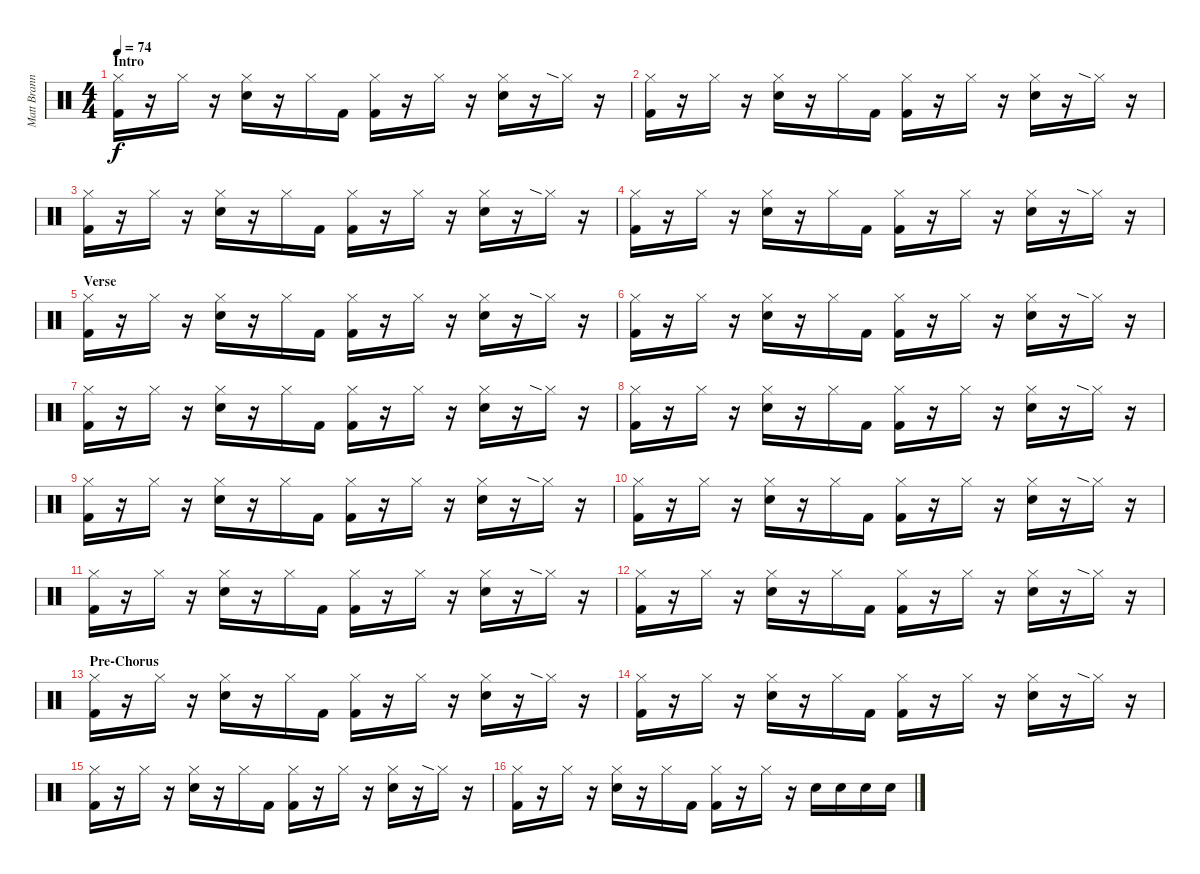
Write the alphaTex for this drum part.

\track ("Matt Brann" "Matt Brann") {instrument percussion}
\staff {score}
\articulation defaults
\ts (4 4)
\section ("" "Intro")
\tempo 74
\clef neutral
\ks c
("Hi-Hat (closed)" "Kick (hit) 2").16{dy f} r.16 "Hi-Hat (closed)".16 r.16 ("Hi-Hat (closed)" "Snare (hit) 2").16 r.16 "Hi-Hat (closed)".16 "Kick (hit) 2".16 ("Hi-Hat (closed)" "Kick (hit) 2").16 r.16 "Hi-Hat (closed)".16 r.16 ("Hi-Hat (closed)" "Snare (hit) 2").16 r.16 "Hi-Hat (closed)"{sia}.16 r.16 |
("Hi-Hat (closed)" "Kick (hit) 2").16 r.16 "Hi-Hat (closed)".16 r.16 ("Hi-Hat (closed)" "Snare (hit) 2").16 r.16 "Hi-Hat (closed)".16 "Kick (hit) 2".16 ("Hi-Hat (closed)" "Kick (hit) 2").16 r.16 "Hi-Hat (closed)".16 r.16 ("Hi-Hat (closed)" "Snare (hit) 2").16 r.16 "Hi-Hat (closed)"{sia}.16 r.16 |
("Hi-Hat (closed)" "Kick (hit) 2").16 r.16 "Hi-Hat (closed)".16 r.16 ("Hi-Hat (closed)" "Snare (hit) 2").16 r.16 "Hi-Hat (closed)".16 "Kick (hit) 2".16 ("Hi-Hat (closed)" "Kick (hit) 2").16 r.16 "Hi-Hat (closed)".16 r.16 ("Hi-Hat (closed)" "Snare (hit) 2").16 r.16 "Hi-Hat (closed)"{sia}.16 r.16 |
("Hi-Hat (closed)" "Kick (hit) 2").16 r.16 "Hi-Hat (closed)".16 r.16 ("Hi-Hat (closed)" "Snare (hit) 2").16 r.16 "Hi-Hat (closed)".16 "Kick (hit) 2".16 ("Hi-Hat (closed)" "Kick (hit) 2").16 r.16 "Hi-Hat (closed)".16 r.16 ("Hi-Hat (closed)" "Snare (hit) 2").16 r.16 "Hi-Hat (closed)"{sia}.16 r.16 |
\section ("" "Verse")
("Hi-Hat (closed)" "Kick (hit) 2").16 r.16 "Hi-Hat (closed)".16 r.16 ("Hi-Hat (closed)" "Snare (hit) 2").16 r.16 "Hi-Hat (closed)".16 "Kick (hit) 2".16 ("Hi-Hat (closed)" "Kick (hit) 2").16 r.16 "Hi-Hat (closed)".16 r.16 ("Hi-Hat (closed)" "Snare (hit) 2").16 r.16 "Hi-Hat (closed)"{sia}.16 r.16 |
("Hi-Hat (closed)" "Kick (hit) 2").16 r.16 "Hi-Hat (closed)".16 r.16 ("Hi-Hat (closed)" "Snare (hit) 2").16 r.16 "Hi-Hat (closed)".16 "Kick (hit) 2".16 ("Hi-Hat (closed)" "Kick (hit) 2").16 r.16 "Hi-Hat (closed)".16 r.16 ("Hi-Hat (closed)" "Snare (hit) 2").16 r.16 "Hi-Hat (closed)"{sia}.16 r.16 |
("Hi-Hat (closed)" "Kick (hit) 2").16 r.16 "Hi-Hat (closed)".16 r.16 ("Hi-Hat (closed)" "Snare (hit) 2").16 r.16 "Hi-Hat (closed)".16 "Kick (hit) 2".16 ("Hi-Hat (closed)" "Kick (hit) 2").16 r.16 "Hi-Hat (closed)".16 r.16 ("Hi-Hat (closed)" "Snare (hit) 2").16 r.16 "Hi-Hat (closed)"{sia}.16 r.16 |
("Hi-Hat (closed)" "Kick (hit) 2").16 r.16 "Hi-Hat (closed)".16 r.16 ("Hi-Hat (closed)" "Snare (hit) 2").16 r.16 "Hi-Hat (closed)".16 "Kick (hit) 2".16 ("Hi-Hat (closed)" "Kick (hit) 2").16 r.16 "Hi-Hat (closed)".16 r.16 ("Hi-Hat (closed)" "Snare (hit) 2").16 r.16 "Hi-Hat (closed)"{sia}.16 r.16 |
("Hi-Hat (closed)" "Kick (hit) 2").16 r.16 "Hi-Hat (closed)".16 r.16 ("Hi-Hat (closed)" "Snare (hit) 2").16 r.16 "Hi-Hat (closed)".16 "Kick (hit) 2".16 ("Hi-Hat (closed)" "Kick (hit) 2").16 r.16 "Hi-Hat (closed)".16 r.16 ("Hi-Hat (closed)" "Snare (hit) 2").16 r.16 "Hi-Hat (closed)"{sia}.16 r.16 |
("Hi-Hat (closed)" "Kick (hit) 2").16 r.16 "Hi-Hat (closed)".16 r.16 ("Hi-Hat (closed)" "Snare (hit) 2").16 r.16 "Hi-Hat (closed)".16 "Kick (hit) 2".16 ("Hi-Hat (closed)" "Kick (hit) 2").16 r.16 "Hi-Hat (closed)".16 r.16 ("Hi-Hat (closed)" "Snare (hit) 2").16 r.16 "Hi-Hat (closed)"{sia}.16 r.16 |
("Hi-Hat (closed)" "Kick (hit) 2").16 r.16 "Hi-Hat (closed)".16 r.16 ("Hi-Hat (closed)" "Snare (hit) 2").16 r.16 "Hi-Hat (closed)".16 "Kick (hit) 2".16 ("Hi-Hat (closed)" "Kick (hit) 2").16 r.16 "Hi-Hat (closed)".16 r.16 ("Hi-Hat (closed)" "Snare (hit) 2").16 r.16 "Hi-Hat (closed)"{sia}.16 r.16 |
("Hi-Hat (closed)" "Kick (hit) 2").16 r.16 "Hi-Hat (closed)".16 r.16 ("Hi-Hat (closed)" "Snare (hit) 2").16 r.16 "Hi-Hat (closed)".16 "Kick (hit) 2".16 ("Hi-Hat (closed)" "Kick (hit) 2").16 r.16 "Hi-Hat (closed)".16 r.16 ("Hi-Hat (closed)" "Snare (hit) 2").16 r.16 "Hi-Hat (closed)"{sia}.16 r.16 |
\section ("" "Pre-Chorus")
("Hi-Hat (closed)" "Kick (hit) 2").16 r.16 "Hi-Hat (closed)".16 r.16 ("Hi-Hat (closed)" "Snare (hit) 2").16 r.16 "Hi-Hat (closed)".16 "Kick (hit) 2".16 ("Hi-Hat (closed)" "Kick (hit) 2").16 r.16 "Hi-Hat (closed)".16 r.16 ("Hi-Hat (closed)" "Snare (hit) 2").16 r.16 "Hi-Hat (closed)"{sia}.16 r.16 |
("Hi-Hat (closed)" "Kick (hit) 2").16 r.16 "Hi-Hat (closed)".16 r.16 ("Hi-Hat (closed)" "Snare (hit) 2").16 r.16 "Hi-Hat (closed)".16 "Kick (hit) 2".16 ("Hi-Hat (closed)" "Kick (hit) 2").16 r.16 "Hi-Hat (closed)".16 r.16 ("Hi-Hat (closed)" "Snare (hit) 2").16 r.16 "Hi-Hat (closed)"{sia}.16 r.16 |
("Hi-Hat (closed)" "Kick (hit) 2").16 r.16 "Hi-Hat (closed)".16 r.16 ("Hi-Hat (closed)" "Snare (hit) 2").16 r.16 "Hi-Hat (closed)".16 "Kick (hit) 2".16 ("Hi-Hat (closed)" "Kick (hit) 2").16 r.16 "Hi-Hat (closed)".16 r.16 ("Hi-Hat (closed)" "Snare (hit) 2").16 r.16 "Hi-Hat (closed)"{sia}.16 r.16 |
("Hi-Hat (closed)" "Kick (hit) 2").16 r.16 "Hi-Hat (closed)".16 r.16 ("Hi-Hat (closed)" "Snare (hit) 2").16 r.16 "Hi-Hat (closed)".16 "Kick (hit) 2".16 ("Hi-Hat (closed)" "Kick (hit) 2").16 r.16 "Hi-Hat (closed)".16 r.16 "Snare (hit) 2".16 "Snare (hit) 2".16 "Snare (hit) 2".16 "Snare (hit) 2".16
